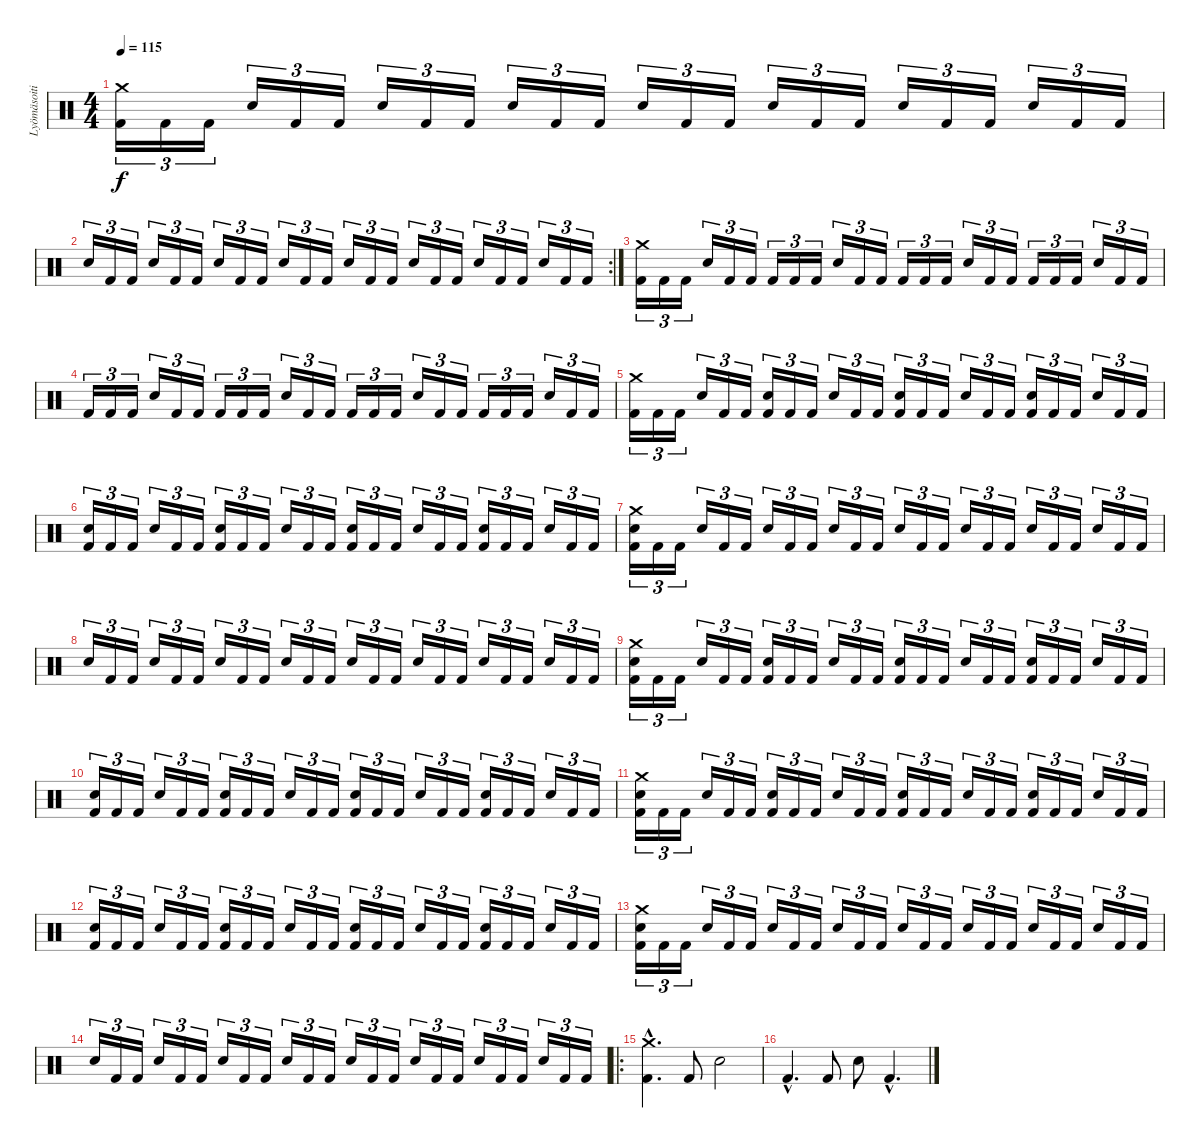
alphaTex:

\track ("Lyömäsoitin" "Lyömäsoiti") {instrument percussion}
\staff {score}
\articulation defaults
\ts (4 4)
\tempo 115
\clef neutral
\ks c
("Crash medium (hit)" "Kick (hit) 2").16{tu (3 2) dy f} "Kick (hit) 2".16{tu (3 2)} "Kick (hit) 2".16{tu (3 2)} "Snare (hit) 2".16{tu (3 2)} "Kick (hit) 2".16{tu (3 2)} "Kick (hit) 2".16{tu (3 2)} "Snare (hit) 2".16{tu (3 2)} "Kick (hit) 2".16{tu (3 2)} "Kick (hit) 2".16{tu (3 2)} "Snare (hit) 2".16{tu (3 2)} "Kick (hit) 2".16{tu (3 2)} "Kick (hit) 2".16{tu (3 2)} "Snare (hit) 2".16{tu (3 2)} "Kick (hit) 2".16{tu (3 2)} "Kick (hit) 2".16{tu (3 2)} "Snare (hit) 2".16{tu (3 2)} "Kick (hit) 2".16{tu (3 2)} "Kick (hit) 2".16{tu (3 2)} "Snare (hit) 2".16{tu (3 2)} "Kick (hit) 2".16{tu (3 2)} "Kick (hit) 2".16{tu (3 2)} "Snare (hit) 2".16{tu (3 2)} "Kick (hit) 2".16{tu (3 2)} "Kick (hit) 2".16{tu (3 2)} |
\rc 2 "Snare (hit) 2".16{tu (3 2)} "Kick (hit) 2".16{tu (3 2)} "Kick (hit) 2".16{tu (3 2)} "Snare (hit) 2".16{tu (3 2)} "Kick (hit) 2".16{tu (3 2)} "Kick (hit) 2".16{tu (3 2)} "Snare (hit) 2".16{tu (3 2)} "Kick (hit) 2".16{tu (3 2)} "Kick (hit) 2".16{tu (3 2)} "Snare (hit) 2".16{tu (3 2)} "Kick (hit) 2".16{tu (3 2)} "Kick (hit) 2".16{tu (3 2)} "Snare (hit) 2".16{tu (3 2)} "Kick (hit) 2".16{tu (3 2)} "Kick (hit) 2".16{tu (3 2)} "Snare (hit) 2".16{tu (3 2)} "Kick (hit) 2".16{tu (3 2)} "Kick (hit) 2".16{tu (3 2)} "Snare (hit) 2".16{tu (3 2)} "Kick (hit) 2".16{tu (3 2)} "Kick (hit) 2".16{tu (3 2)} "Snare (hit) 2".16{tu (3 2)} "Kick (hit) 2".16{tu (3 2)} "Kick (hit) 2".16{tu (3 2)}
|
("Crash medium (hit)" "Kick (hit) 2").16{tu (3 2)} "Kick (hit) 2".16{tu (3 2)} "Kick (hit) 2".16{tu (3 2)} "Snare (hit) 2".16{tu (3 2)} "Kick (hit) 2".16{tu (3 2)} "Kick (hit) 2".16{tu (3 2)} "Kick (hit) 2".16{tu (3 2)} "Kick (hit) 2".16{tu (3 2)} "Kick (hit) 2".16{tu (3 2)} "Snare (hit) 2".16{tu (3 2)} "Kick (hit) 2".16{tu (3 2)} "Kick (hit) 2".16{tu (3 2)} "Kick (hit) 2".16{tu (3 2)} "Kick (hit) 2".16{tu (3 2)} "Kick (hit) 2".16{tu (3 2)} "Snare (hit) 2".16{tu (3 2)} "Kick (hit) 2".16{tu (3 2)} "Kick (hit) 2".16{tu (3 2)} "Kick (hit) 2".16{tu (3 2)} "Kick (hit) 2".16{tu (3 2)} "Kick (hit) 2".16{tu (3 2)} "Snare (hit) 2".16{tu (3 2)} "Kick (hit) 2".16{tu (3 2)} "Kick (hit) 2".16{tu (3 2)} |
"Kick (hit) 2".16{tu (3 2)} "Kick (hit) 2".16{tu (3 2)} "Kick (hit) 2".16{tu (3 2)} "Snare (hit) 2".16{tu (3 2)} "Kick (hit) 2".16{tu (3 2)} "Kick (hit) 2".16{tu (3 2)} "Kick (hit) 2".16{tu (3 2)} "Kick (hit) 2".16{tu (3 2)} "Kick (hit) 2".16{tu (3 2)} "Snare (hit) 2".16{tu (3 2)} "Kick (hit) 2".16{tu (3 2)} "Kick (hit) 2".16{tu (3 2)} "Kick (hit) 2".16{tu (3 2)} "Kick (hit) 2".16{tu (3 2)} "Kick (hit) 2".16{tu (3 2)} "Snare (hit) 2".16{tu (3 2)} "Kick (hit) 2".16{tu (3 2)} "Kick (hit) 2".16{tu (3 2)} "Kick (hit) 2".16{tu (3 2)} "Kick (hit) 2".16{tu (3 2)} "Kick (hit) 2".16{tu (3 2)} "Snare (hit) 2".16{tu (3 2)} "Kick (hit) 2".16{tu (3 2)} "Kick (hit) 2".16{tu (3 2)} |
("Crash medium (hit)" "Kick (hit) 2").16{tu (3 2)} "Kick (hit) 2".16{tu (3 2)} "Kick (hit) 2".16{tu (3 2)} "Snare (hit) 2".16{tu (3 2)} "Kick (hit) 2".16{tu (3 2)} "Kick (hit) 2".16{tu (3 2)} ("Snare (hit) 2" "Kick (hit) 2").16{tu (3 2)} "Kick (hit) 2".16{tu (3 2)} "Kick (hit) 2".16{tu (3 2)} "Snare (hit) 2".16{tu (3 2)} "Kick (hit) 2".16{tu (3 2)} "Kick (hit) 2".16{tu (3 2)} ("Snare (hit) 2" "Kick (hit) 2").16{tu (3 2)} "Kick (hit) 2".16{tu (3 2)} "Kick (hit) 2".16{tu (3 2)} "Snare (hit) 2".16{tu (3 2)} "Kick (hit) 2".16{tu (3 2)} "Kick (hit) 2".16{tu (3 2)} ("Snare (hit) 2" "Kick (hit) 2").16{tu (3 2)} "Kick (hit) 2".16{tu (3 2)} "Kick (hit) 2".16{tu (3 2)} "Snare (hit) 2".16{tu (3 2)} "Kick (hit) 2".16{tu (3 2)} "Kick (hit) 2".16{tu (3 2)} |
("Snare (hit) 2" "Kick (hit) 2").16{tu (3 2)} "Kick (hit) 2".16{tu (3 2)} "Kick (hit) 2".16{tu (3 2)} "Snare (hit) 2".16{tu (3 2)} "Kick (hit) 2".16{tu (3 2)} "Kick (hit) 2".16{tu (3 2)} ("Snare (hit) 2" "Kick (hit) 2").16{tu (3 2)} "Kick (hit) 2".16{tu (3 2)} "Kick (hit) 2".16{tu (3 2)} "Snare (hit) 2".16{tu (3 2)} "Kick (hit) 2".16{tu (3 2)} "Kick (hit) 2".16{tu (3 2)} ("Snare (hit) 2" "Kick (hit) 2").16{tu (3 2)} "Kick (hit) 2".16{tu (3 2)} "Kick (hit) 2".16{tu (3 2)} "Snare (hit) 2".16{tu (3 2)} "Kick (hit) 2".16{tu (3 2)} "Kick (hit) 2".16{tu (3 2)} ("Snare (hit) 2" "Kick (hit) 2").16{tu (3 2)} "Kick (hit) 2".16{tu (3 2)} "Kick (hit) 2".16{tu (3 2)} "Snare (hit) 2".16{tu (3 2)} "Kick (hit) 2".16{tu (3 2)} "Kick (hit) 2".16{tu (3 2)} |
("Crash medium (hit)" "Snare (hit) 2" "Kick (hit) 2").16{tu (3 2)} "Kick (hit) 2".16{tu (3 2)} "Kick (hit) 2".16{tu (3 2)} "Snare (hit) 2".16{tu (3 2)} "Kick (hit) 2".16{tu (3 2)} "Kick (hit) 2".16{tu (3 2)} "Snare (hit) 2".16{tu (3 2)} "Kick (hit) 2".16{tu (3 2)} "Kick (hit) 2".16{tu (3 2)} "Snare (hit) 2".16{tu (3 2)} "Kick (hit) 2".16{tu (3 2)} "Kick (hit) 2".16{tu (3 2)} "Snare (hit) 2".16{tu (3 2)} "Kick (hit) 2".16{tu (3 2)} "Kick (hit) 2".16{tu (3 2)} "Snare (hit) 2".16{tu (3 2)} "Kick (hit) 2".16{tu (3 2)} "Kick (hit) 2".16{tu (3 2)} "Snare (hit) 2".16{tu (3 2)} "Kick (hit) 2".16{tu (3 2)} "Kick (hit) 2".16{tu (3 2)} "Snare (hit) 2".16{tu (3 2)} "Kick (hit) 2".16{tu (3 2)} "Kick (hit) 2".16{tu (3 2)} |
"Snare (hit) 2".16{tu (3 2)} "Kick (hit) 2".16{tu (3 2)} "Kick (hit) 2".16{tu (3 2)} "Snare (hit) 2".16{tu (3 2)} "Kick (hit) 2".16{tu (3 2)} "Kick (hit) 2".16{tu (3 2)} "Snare (hit) 2".16{tu (3 2)} "Kick (hit) 2".16{tu (3 2)} "Kick (hit) 2".16{tu (3 2)} "Snare (hit) 2".16{tu (3 2)} "Kick (hit) 2".16{tu (3 2)} "Kick (hit) 2".16{tu (3 2)} "Snare (hit) 2".16{tu (3 2)} "Kick (hit) 2".16{tu (3 2)} "Kick (hit) 2".16{tu (3 2)} "Snare (hit) 2".16{tu (3 2)} "Kick (hit) 2".16{tu (3 2)} "Kick (hit) 2".16{tu (3 2)} "Snare (hit) 2".16{tu (3 2)} "Kick (hit) 2".16{tu (3 2)} "Kick (hit) 2".16{tu (3 2)} "Snare (hit) 2".16{tu (3 2)} "Kick (hit) 2".16{tu (3 2)} "Kick (hit) 2".16{tu (3 2)} |
("Crash medium (hit)" "Snare (hit) 2" "Kick (hit) 2").16{tu (3 2)} "Kick (hit) 2".16{tu (3 2)} "Kick (hit) 2".16{tu (3 2)} "Snare (hit) 2".16{tu (3 2)} "Kick (hit) 2".16{tu (3 2)} "Kick (hit) 2".16{tu (3 2)} ("Snare (hit) 2" "Kick (hit) 2").16{tu (3 2)} "Kick (hit) 2".16{tu (3 2)} "Kick (hit) 2".16{tu (3 2)} "Snare (hit) 2".16{tu (3 2)} "Kick (hit) 2".16{tu (3 2)} "Kick (hit) 2".16{tu (3 2)} ("Snare (hit) 2" "Kick (hit) 2").16{tu (3 2)} "Kick (hit) 2".16{tu (3 2)} "Kick (hit) 2".16{tu (3 2)} "Snare (hit) 2".16{tu (3 2)} "Kick (hit) 2".16{tu (3 2)} "Kick (hit) 2".16{tu (3 2)} ("Snare (hit) 2" "Kick (hit) 2").16{tu (3 2)} "Kick (hit) 2".16{tu (3 2)} "Kick (hit) 2".16{tu (3 2)} "Snare (hit) 2".16{tu (3 2)} "Kick (hit) 2".16{tu (3 2)} "Kick (hit) 2".16{tu (3 2)} |
("Snare (hit) 2" "Kick (hit) 2").16{tu (3 2)} "Kick (hit) 2".16{tu (3 2)} "Kick (hit) 2".16{tu (3 2)} "Snare (hit) 2".16{tu (3 2)} "Kick (hit) 2".16{tu (3 2)} "Kick (hit) 2".16{tu (3 2)} ("Snare (hit) 2" "Kick (hit) 2").16{tu (3 2)} "Kick (hit) 2".16{tu (3 2)} "Kick (hit) 2".16{tu (3 2)} "Snare (hit) 2".16{tu (3 2)} "Kick (hit) 2".16{tu (3 2)} "Kick (hit) 2".16{tu (3 2)} ("Snare (hit) 2" "Kick (hit) 2").16{tu (3 2)} "Kick (hit) 2".16{tu (3 2)} "Kick (hit) 2".16{tu (3 2)} "Snare (hit) 2".16{tu (3 2)} "Kick (hit) 2".16{tu (3 2)} "Kick (hit) 2".16{tu (3 2)} ("Snare (hit) 2" "Kick (hit) 2").16{tu (3 2)} "Kick (hit) 2".16{tu (3 2)} "Kick (hit) 2".16{tu (3 2)} "Snare (hit) 2".16{tu (3 2)} "Kick (hit) 2".16{tu (3 2)} "Kick (hit) 2".16{tu (3 2)} |
("Crash medium (hit)" "Snare (hit) 2" "Kick (hit) 2").16{tu (3 2)} "Kick (hit) 2".16{tu (3 2)} "Kick (hit) 2".16{tu (3 2)} "Snare (hit) 2".16{tu (3 2)} "Kick (hit) 2".16{tu (3 2)} "Kick (hit) 2".16{tu (3 2)} ("Snare (hit) 2" "Kick (hit) 2").16{tu (3 2)} "Kick (hit) 2".16{tu (3 2)} "Kick (hit) 2".16{tu (3 2)} "Snare (hit) 2".16{tu (3 2)} "Kick (hit) 2".16{tu (3 2)} "Kick (hit) 2".16{tu (3 2)} ("Snare (hit) 2" "Kick (hit) 2").16{tu (3 2)} "Kick (hit) 2".16{tu (3 2)} "Kick (hit) 2".16{tu (3 2)} "Snare (hit) 2".16{tu (3 2)} "Kick (hit) 2".16{tu (3 2)} "Kick (hit) 2".16{tu (3 2)} ("Snare (hit) 2" "Kick (hit) 2").16{tu (3 2)} "Kick (hit) 2".16{tu (3 2)} "Kick (hit) 2".16{tu (3 2)} "Snare (hit) 2".16{tu (3 2)} "Kick (hit) 2".16{tu (3 2)} "Kick (hit) 2".16{tu (3 2)} |
("Snare (hit) 2" "Kick (hit) 2").16{tu (3 2)} "Kick (hit) 2".16{tu (3 2)} "Kick (hit) 2".16{tu (3 2)} "Snare (hit) 2".16{tu (3 2)} "Kick (hit) 2".16{tu (3 2)} "Kick (hit) 2".16{tu (3 2)} ("Snare (hit) 2" "Kick (hit) 2").16{tu (3 2)} "Kick (hit) 2".16{tu (3 2)} "Kick (hit) 2".16{tu (3 2)} "Snare (hit) 2".16{tu (3 2)} "Kick (hit) 2".16{tu (3 2)} "Kick (hit) 2".16{tu (3 2)} ("Snare (hit) 2" "Kick (hit) 2").16{tu (3 2)} "Kick (hit) 2".16{tu (3 2)} "Kick (hit) 2".16{tu (3 2)} "Snare (hit) 2".16{tu (3 2)} "Kick (hit) 2".16{tu (3 2)} "Kick (hit) 2".16{tu (3 2)} ("Snare (hit) 2" "Kick (hit) 2").16{tu (3 2)} "Kick (hit) 2".16{tu (3 2)} "Kick (hit) 2".16{tu (3 2)} "Snare (hit) 2".16{tu (3 2)} "Kick (hit) 2".16{tu (3 2)} "Kick (hit) 2".16{tu (3 2)} |
("Crash medium (hit)" "Snare (hit) 2" "Kick (hit) 2").16{tu (3 2)} "Kick (hit) 2".16{tu (3 2)} "Kick (hit) 2".16{tu (3 2)} "Snare (hit) 2".16{tu (3 2)} "Kick (hit) 2".16{tu (3 2)} "Kick (hit) 2".16{tu (3 2)} "Snare (hit) 2".16{tu (3 2)} "Kick (hit) 2".16{tu (3 2)} "Kick (hit) 2".16{tu (3 2)} "Snare (hit) 2".16{tu (3 2)} "Kick (hit) 2".16{tu (3 2)} "Kick (hit) 2".16{tu (3 2)} "Snare (hit) 2".16{tu (3 2)} "Kick (hit) 2".16{tu (3 2)} "Kick (hit) 2".16{tu (3 2)} "Snare (hit) 2".16{tu (3 2)} "Kick (hit) 2".16{tu (3 2)} "Kick (hit) 2".16{tu (3 2)} "Snare (hit) 2".16{tu (3 2)} "Kick (hit) 2".16{tu (3 2)} "Kick (hit) 2".16{tu (3 2)} "Snare (hit) 2".16{tu (3 2)} "Kick (hit) 2".16{tu (3 2)} "Kick (hit) 2".16{tu (3 2)} |
"Snare (hit) 2".16{tu (3 2)} "Kick (hit) 2".16{tu (3 2)} "Kick (hit) 2".16{tu (3 2)} "Snare (hit) 2".16{tu (3 2)} "Kick (hit) 2".16{tu (3 2)} "Kick (hit) 2".16{tu (3 2)} "Snare (hit) 2".16{tu (3 2)} "Kick (hit) 2".16{tu (3 2)} "Kick (hit) 2".16{tu (3 2)} "Snare (hit) 2".16{tu (3 2)} "Kick (hit) 2".16{tu (3 2)} "Kick (hit) 2".16{tu (3 2)} "Snare (hit) 2".16{tu (3 2)} "Kick (hit) 2".16{tu (3 2)} "Kick (hit) 2".16{tu (3 2)} "Snare (hit) 2".16{tu (3 2)} "Kick (hit) 2".16{tu (3 2)} "Kick (hit) 2".16{tu (3 2)} "Snare (hit) 2".16{tu (3 2)} "Kick (hit) 2".16{tu (3 2)} "Kick (hit) 2".16{tu (3 2)} "Snare (hit) 2".16{tu (3 2)} "Kick (hit) 2".16{tu (3 2)} "Kick (hit) 2".16{tu (3 2)} |
\ro
("Crash medium (hit)"{hac} "Kick (hit) 2"{hac}).4{d} "Kick (hit) 2".8 "Snare (hit) 2".2 |
"Kick (hit) 2"{hac}.4{d} "Kick (hit) 2".8 "Snare (hit) 2".8 "Kick (hit) 2"{hac}.4{d}
